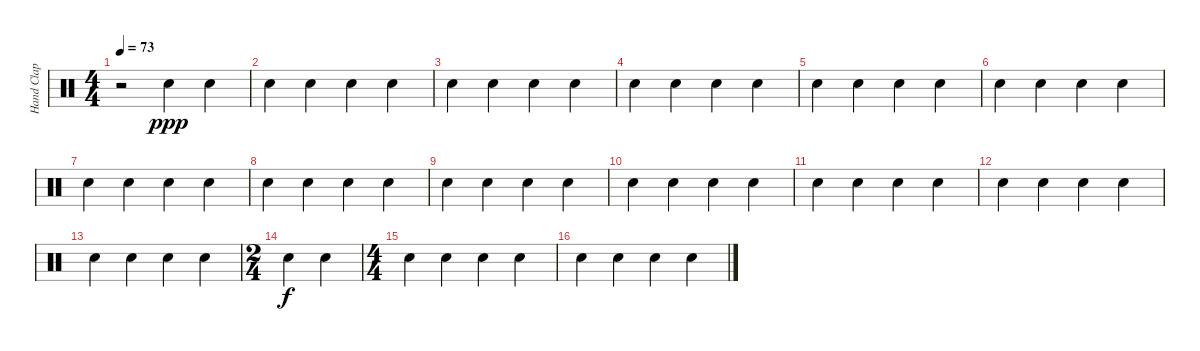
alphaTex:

\track ("Hand Clap" "Hand Clap") {instrument percussion}
\staff {score}
\articulation defaults
\ts (4 4)
\tempo 73
\clef neutral
\ks c
r.2{dy ppp} "Hand Clap (hit)".4 "Hand Clap (hit)".4 |
"Hand Clap (hit)".4 "Hand Clap (hit)".4 "Hand Clap (hit)".4 "Hand Clap (hit)".4 |
"Hand Clap (hit)".4 "Hand Clap (hit)".4 "Hand Clap (hit)".4 "Hand Clap (hit)".4 |
"Hand Clap (hit)".4 "Hand Clap (hit)".4 "Hand Clap (hit)".4 "Hand Clap (hit)".4 |
"Hand Clap (hit)".4 "Hand Clap (hit)".4 "Hand Clap (hit)".4 "Hand Clap (hit)".4 |
"Hand Clap (hit)".4 "Hand Clap (hit)".4 "Hand Clap (hit)".4 "Hand Clap (hit)".4 |
"Hand Clap (hit)".4 "Hand Clap (hit)".4 "Hand Clap (hit)".4 "Hand Clap (hit)".4 |
"Hand Clap (hit)".4 "Hand Clap (hit)".4 "Hand Clap (hit)".4 "Hand Clap (hit)".4 |
"Hand Clap (hit)".4 "Hand Clap (hit)".4 "Hand Clap (hit)".4 "Hand Clap (hit)".4 |
"Hand Clap (hit)".4 "Hand Clap (hit)".4 "Hand Clap (hit)".4 "Hand Clap (hit)".4 |
"Hand Clap (hit)".4 "Hand Clap (hit)".4 "Hand Clap (hit)".4 "Hand Clap (hit)".4 |
"Hand Clap (hit)".4 "Hand Clap (hit)".4 "Hand Clap (hit)".4 "Hand Clap (hit)".4 |
"Hand Clap (hit)".4 "Hand Clap (hit)".4 "Hand Clap (hit)".4 "Hand Clap (hit)".4 |
\ts (2 4)
"Hand Clap (hit)".4{dy f} "Hand Clap (hit)".4 |
\ts (4 4)
"Hand Clap (hit)".4 "Hand Clap (hit)".4 "Hand Clap (hit)".4 "Hand Clap (hit)".4 |
"Hand Clap (hit)".4 "Hand Clap (hit)".4 "Hand Clap (hit)".4 "Hand Clap (hit)".4
